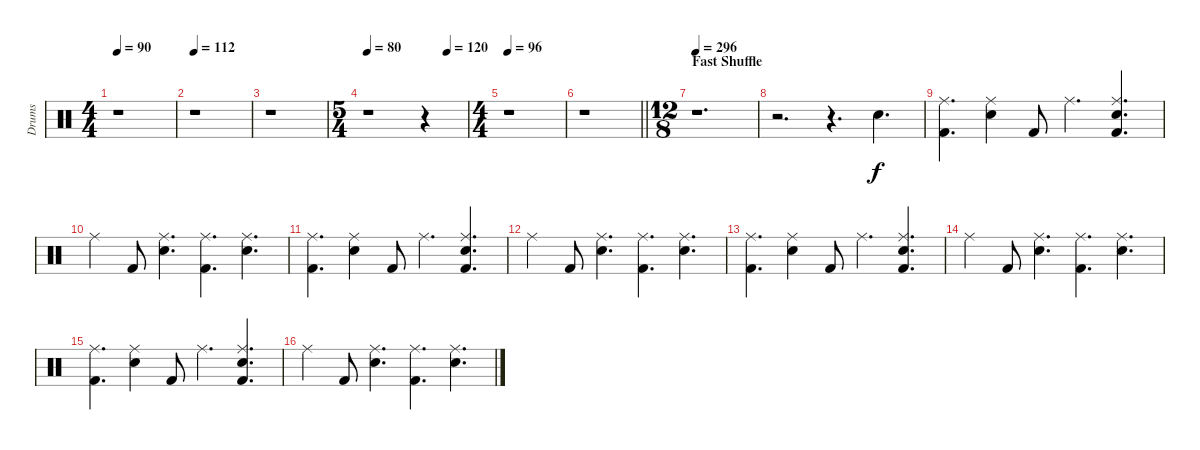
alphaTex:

\track ("Drums" "Drums") {instrument percussion}
\staff {score}
\articulation defaults
\ts (4 4)
\tempo 90
\clef neutral
\ks c
r.1{dy ff} |
\tempo 112
r.1 |
r.1 |
\ts (5 4)
\tempo 80
\tempo (120 0.8)
r.1 r.4 |
\ts (4 4)
\tempo 96
r.1 |
\barLineRight lightlight
r.1 |
\ts (12 8)
\section ("" "Fast Shuffle")
\tempo 296
r.1{d} |
r.2{d} r.4{d} "Electric Snare (hit)".4{d dy f} |
("Ride (middle)" "Kick (hit) 2").4{d} ("Ride (middle)" "Electric Snare (hit)").4 "Kick (hit) 2".8 "Ride (middle)".4{d} ("Ride (middle)" "Electric Snare (hit)" "Kick (hit) 2").4{d} |
"Ride (middle)".4 "Kick (hit) 2".8 ("Ride (middle)" "Electric Snare (hit)").4{d} ("Ride (middle)" "Kick (hit) 2").4{d} ("Ride (middle)" "Electric Snare (hit)").4{d} |
("Ride (middle)" "Kick (hit) 2").4{d} ("Ride (middle)" "Electric Snare (hit)").4 "Kick (hit) 2".8 "Ride (middle)".4{d} ("Ride (middle)" "Electric Snare (hit)" "Kick (hit) 2").4{d} |
"Ride (middle)".4 "Kick (hit) 2".8 ("Ride (middle)" "Electric Snare (hit)").4{d} ("Ride (middle)" "Kick (hit) 2").4{d} ("Ride (middle)" "Electric Snare (hit)").4{d} |
("Ride (middle)" "Kick (hit) 2").4{d} ("Ride (middle)" "Electric Snare (hit)").4 "Kick (hit) 2".8 "Ride (middle)".4{d} ("Ride (middle)" "Electric Snare (hit)" "Kick (hit) 2").4{d} |
"Ride (middle)".4 "Kick (hit) 2".8 ("Ride (middle)" "Electric Snare (hit)").4{d} ("Ride (middle)" "Kick (hit) 2").4{d} ("Ride (middle)" "Electric Snare (hit)").4{d} |
("Ride (middle)" "Kick (hit) 2").4{d} ("Ride (middle)" "Electric Snare (hit)").4 "Kick (hit) 2".8 "Ride (middle)".4{d} ("Ride (middle)" "Electric Snare (hit)" "Kick (hit) 2").4{d} |
"Ride (middle)".4 "Kick (hit) 2".8 ("Ride (middle)" "Electric Snare (hit)").4{d} ("Ride (middle)" "Kick (hit) 2").4{d} ("Ride (middle)" "Electric Snare (hit)").4{d}
